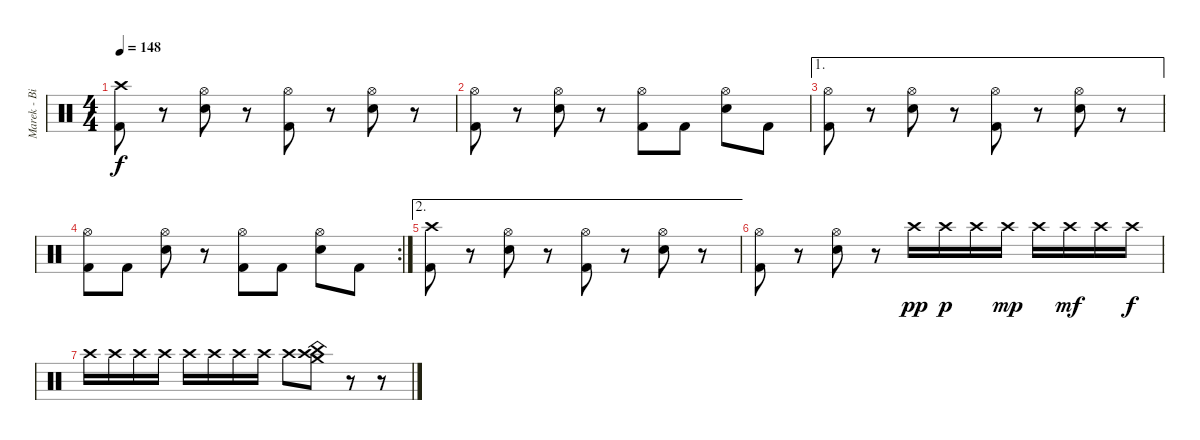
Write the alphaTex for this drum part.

\track ("Marek - Bicie" "Marek - Bi") {instrument percussion}
\staff {score}
\articulation defaults
\ts (4 4)
\tempo 148
\clef neutral
\ks c
("Crash high (hit)" "Kick (hit) 2").8{dy f} r.8 ("Hi-Hat (open)" "Electric Snare (hit)").8 r.8 ("Hi-Hat (open)" "Kick (hit) 2").8 r.8 ("Hi-Hat (open)" "Electric Snare (hit)").8 r.8 |
("Hi-Hat (open)" "Kick (hit) 2").8 r.8 ("Hi-Hat (open)" "Electric Snare (hit)").8 r.8 ("Hi-Hat (open)" "Kick (hit) 2").8 "Kick (hit) 2".8 ("Hi-Hat (open)" "Electric Snare (hit)").8 "Kick (hit) 2".8 |
\ae 1
("Hi-Hat (open)" "Kick (hit) 2").8 r.8 ("Hi-Hat (open)" "Electric Snare (hit)").8 r.8 ("Hi-Hat (open)" "Kick (hit) 2").8 r.8 ("Hi-Hat (open)" "Electric Snare (hit)").8 r.8 |
\rc 2
("Hi-Hat (open)" "Kick (hit) 2").8 "Kick (hit) 2".8 ("Hi-Hat (open)" "Electric Snare (hit)").8 r.8 ("Hi-Hat (open)" "Kick (hit) 2").8 "Kick (hit) 2".8 ("Hi-Hat (open)" "Electric Snare (hit)").8 "Kick (hit) 2".8 |
\ae 2
("Crash high (hit)" "Kick (hit) 2").8 r.8 ("Hi-Hat (open)" "Electric Snare (hit)").8 r.8 ("Hi-Hat (open)" "Kick (hit) 2").8 r.8 ("Hi-Hat (open)" "Electric Snare (hit)").8 r.8 |
("Hi-Hat (open)" "Kick (hit) 2").8 r.8 ("Hi-Hat (open)" "Electric Snare (hit)").8 r.8 "Crash high (hit)".16{dy pp} "Crash high (hit)".16{dy p} "Crash high (hit)".16 "Crash high (hit)".16{dy mp} "Crash high (hit)".16 "Crash high (hit)".16{dy mf} "Crash high (hit)".16 "Crash high (hit)".16{dy f} |
"Crash high (hit)".16 "Crash high (hit)".16 "Crash high (hit)".16 "Crash high (hit)".16 "Crash high (hit)".16 "Crash high (hit)".16 "Crash high (hit)".16 "Crash high (hit)".16 "Crash high (hit)".8 ("China (hit)" "Crash medium (hit)" "Crash high (hit)").8 r.8 r.8
